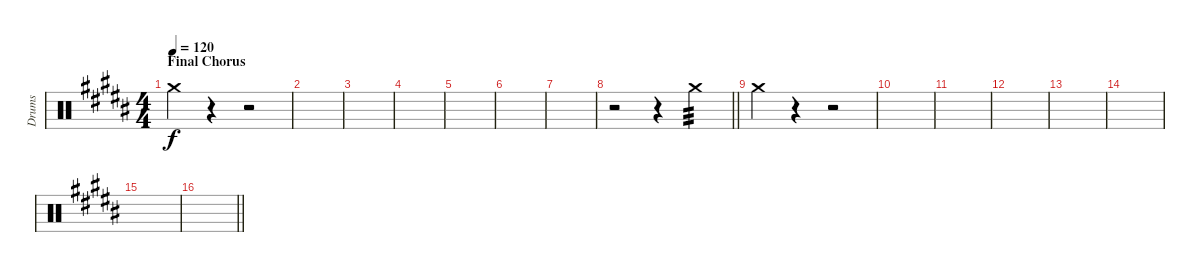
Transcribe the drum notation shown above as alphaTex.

\track ("Drums" "Drums") {instrument percussion}
\staff {score}
\articulation defaults
\ts (4 4)
\section ("" "Final Chorus")
\tempo 120
\clef neutral
\ks b "Crash medium (hit)".4{dy f}
r.4 r.2 |
|
|
|
|
|
|
\barLineRight lightlight
r.2 r.4 "Crash medium (hit)".4{tp 3} |
"Crash medium (hit)".4 r.4 r.2 |
|
|
|
|
|
|
\barLineRight lightlight
